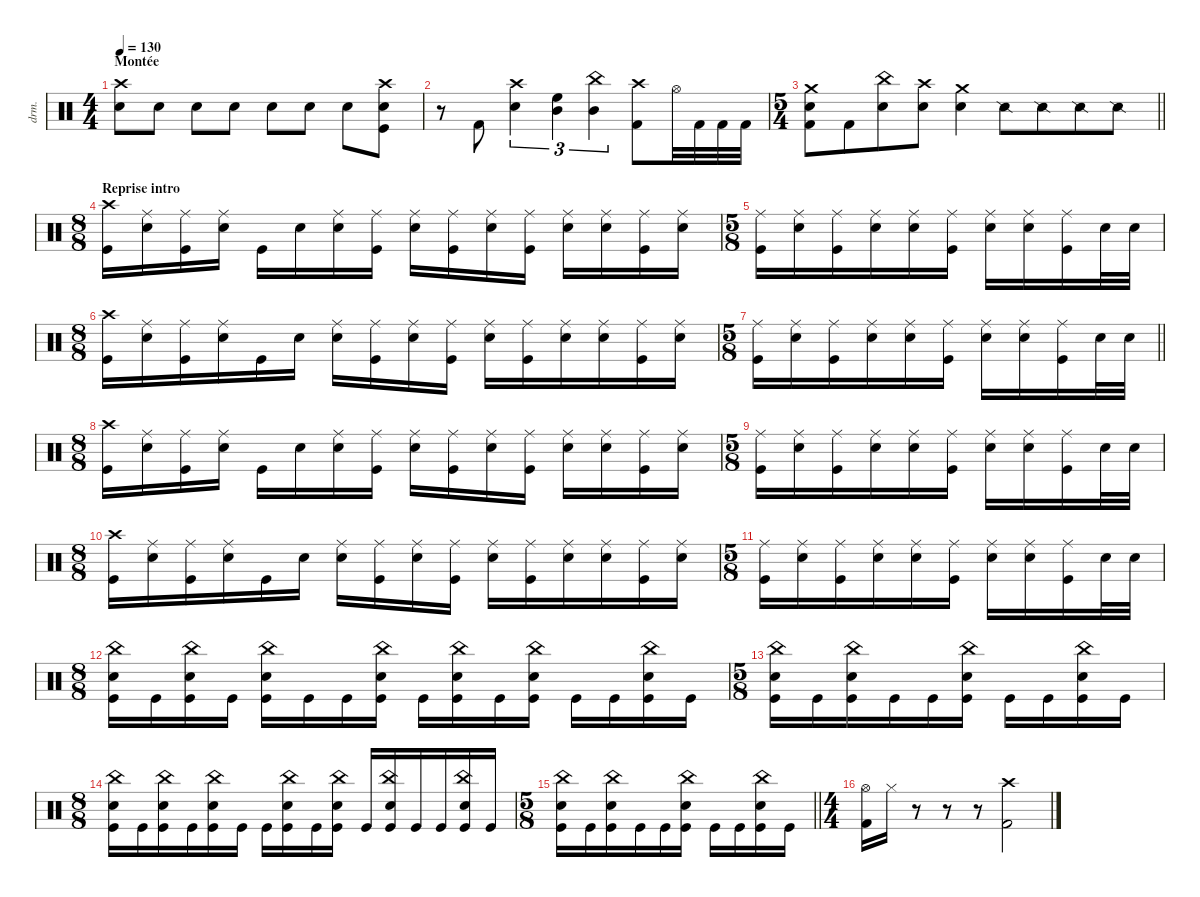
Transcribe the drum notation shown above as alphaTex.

\defaultSystemsLayout 4
\hideDynamics
\bracketExtendMode nobrackets
\otherSystemsTrackNameOrientation horizontal
\track ("Manouche" "drm.") {instrument percussion}
\staff {score}
\articulation defaults
\ts (4 4)
\section ("" "Montée")
\tempo 130
\clef neutral
\ks c
("Crash high (hit)" "Snare (hit) 2").8{dy mf beam Down} "Snare (hit) 2".8{dy mp beam Down} "Snare (hit) 2".8{beam Down} "Snare (hit) 2".8{beam Down} "Snare (hit) 2".8{dy mf beam Down} "Snare (hit) 2".8{beam Down} "Snare (hit) 2".8{dy f beam Down} ("Crash high (hit)" "Kick (hit)" "Snare (hit) 2").8{beam Down} |
r.8{beam Down} "Kick (hit) 2".8{dy ff beam Up} ("Snare (hit) 2" "Crash high (hit)").4{tu (3 2) beam Down} ("Mid Tom (hit)" "High Floor Tom (hit)").4{tu (3 2) beam Down} ("Mid Tom (hit)" "China (hit)").4{tu (3 2) beam Down} ("Crash high (hit)" "Kick (hit) 2").8{dy f beam Down} "Hi-Hat (open)".32{dy ff beam Down} "Kick (hit) 2".32{dy f beam Down} "Kick (hit) 2".32{beam Down} "Kick (hit) 2".32{beam Down} |
\ts (5 4)
\beaming (8 6 4)
\barLineRight lightlight
("Kick (hit) 2" "Snare (hit) 2" "Crash medium (hit)").8{dy ff beam Down} "Kick (hit) 2".8{dy f beam Down} ("Snare (hit) 2" "China (hit)").8{beam Down} ("Snare (hit) 2" "Crash high (hit)").8{beam Down} ("Snare (hit) 2" "Crash medium (hit)").4{beam Down} "Snare (side stick) 2".8{beam Down} "Snare (side stick) 2".8{beam Down} "Snare (side stick) 2".8{beam Down} "Snare (side stick) 2".8{beam Down} |
\ts (8 8)
\beaming (8 2 2 2 2)
\section ("" "Reprise intro")
("Crash high (hit)" "Kick (hit)").16{beam Down} ("Snare (hit) 2" "Ride (middle)").16{beam Down} ("Kick (hit)" "Ride (middle)").16{beam Down} ("Snare (hit) 2" "Ride (middle)").16{beam Down} "Kick (hit)".16{beam Down} "Snare (hit) 2".16{beam Down} ("Snare (hit) 2" "Ride (middle)").16{beam Down} ("Kick (hit)" "Ride (middle)").16{beam Down} ("Snare (hit) 2" "Ride (middle)").16{beam Down} ("Kick (hit)" "Ride (middle)").16{beam Down} ("Snare (hit) 2" "Ride (middle)").16{beam Down} ("Ride (middle)" "Kick (hit)").16{beam Down} ("Snare (hit) 2" "Ride (middle)").16{beam Down} ("Snare (hit) 2" "Ride (middle)").16{beam Down} ("Kick (hit)" "Ride (middle)").16{beam Down} ("Snare (hit) 2" "Ride (middle)").16{beam Down} |
\ts (5 8)
\beaming (8 3 2)
("Kick (hit)" "Ride (middle)").16{beam Down} ("Snare (hit) 2" "Ride (middle)").16{beam Down} ("Kick (hit)" "Ride (middle)").16{beam Down} ("Snare (hit) 2" "Ride (middle)").16{beam Down} ("Snare (hit) 2" "Ride (middle)").16{beam Down} ("Kick (hit)" "Ride (middle)").16{beam Down} ("Snare (hit) 2" "Ride (middle)").16{beam Down} ("Snare (hit) 2" "Ride (middle)").16{beam Down} ("Kick (hit)" "Ride (middle)").16{beam Down} "Snare (hit) 2".32{beam Down} "Snare (hit) 2".32{beam Down} |
\ts (8 8)
\beaming (8 3 2 3)
("Crash high (hit)" "Kick (hit)").16{beam Down} ("Snare (hit) 2" "Ride (middle)").16{beam Down} ("Kick (hit)" "Ride (middle)").16{beam Down} ("Snare (hit) 2" "Ride (middle)").16{beam Down} "Kick (hit)".16{beam Down} "Snare (hit) 2".16{beam Down} ("Snare (hit) 2" "Ride (middle)").16{beam Down} ("Kick (hit)" "Ride (middle)").16{beam Down} ("Snare (hit) 2" "Ride (middle)").16{beam Down} ("Kick (hit)" "Ride (middle)").16{beam Down} ("Snare (hit) 2" "Ride (middle)").16{beam Down} ("Ride (middle)" "Kick (hit)").16{beam Down} ("Snare (hit) 2" "Ride (middle)").16{beam Down} ("Snare (hit) 2" "Ride (middle)").16{beam Down} ("Kick (hit)" "Ride (middle)").16{beam Down} ("Snare (hit) 2" "Ride (middle)").16{beam Down} |
\ts (5 8)
\beaming (8 3 2)
\barLineRight lightlight
("Kick (hit)" "Ride (middle)").16{beam Down} ("Snare (hit) 2" "Ride (middle)").16{beam Down} ("Kick (hit)" "Ride (middle)").16{beam Down} ("Snare (hit) 2" "Ride (middle)").16{beam Down} ("Snare (hit) 2" "Ride (middle)").16{beam Down} ("Kick (hit)" "Ride (middle)").16{beam Down} ("Snare (hit) 2" "Ride (middle)").16{beam Down} ("Snare (hit) 2" "Ride (middle)").16{beam Down} ("Kick (hit)" "Ride (middle)").16{beam Down} "Snare (hit) 2".32{beam Down} "Snare (hit) 2".32{beam Down} |
\ts (8 8)
\beaming (8 2 2 2 2)
("Crash high (hit)" "Kick (hit)").16{beam Down} ("Snare (hit) 2" "Ride (middle)").16{beam Down} ("Kick (hit)" "Ride (middle)").16{beam Down} ("Snare (hit) 2" "Ride (middle)").16{beam Down} "Kick (hit)".16{beam Down} "Snare (hit) 2".16{beam Down} ("Snare (hit) 2" "Ride (middle)").16{beam Down} ("Kick (hit)" "Ride (middle)").16{beam Down} ("Snare (hit) 2" "Ride (middle)").16{beam Down} ("Kick (hit)" "Ride (middle)").16{beam Down} ("Snare (hit) 2" "Ride (middle)").16{beam Down} ("Ride (middle)" "Kick (hit)").16{beam Down} ("Snare (hit) 2" "Ride (middle)").16{beam Down} ("Snare (hit) 2" "Ride (middle)").16{beam Down} ("Kick (hit)" "Ride (middle)").16{beam Down} ("Snare (hit) 2" "Ride (middle)").16{beam Down} |
\ts (5 8)
\beaming (8 3 2)
("Kick (hit)" "Ride (middle)").16{beam Down} ("Snare (hit) 2" "Ride (middle)").16{beam Down} ("Kick (hit)" "Ride (middle)").16{beam Down} ("Snare (hit) 2" "Ride (middle)").16{beam Down} ("Snare (hit) 2" "Ride (middle)").16{beam Down} ("Kick (hit)" "Ride (middle)").16{beam Down} ("Snare (hit) 2" "Ride (middle)").16{beam Down} ("Snare (hit) 2" "Ride (middle)").16{beam Down} ("Kick (hit)" "Ride (middle)").16{beam Down} "Snare (hit) 2".32{beam Down} "Snare (hit) 2".32{beam Down} |
\ts (8 8)
\beaming (8 3 2 3)
("Crash high (hit)" "Kick (hit)").16{beam Down} ("Snare (hit) 2" "Ride (middle)").16{beam Down} ("Kick (hit)" "Ride (middle)").16{beam Down} ("Snare (hit) 2" "Ride (middle)").16{beam Down} "Kick (hit)".16{beam Down} "Snare (hit) 2".16{beam Down} ("Snare (hit) 2" "Ride (middle)").16{beam Down} ("Kick (hit)" "Ride (middle)").16{beam Down} ("Snare (hit) 2" "Ride (middle)").16{beam Down} ("Kick (hit)" "Ride (middle)").16{beam Down} ("Snare (hit) 2" "Ride (middle)").16{beam Down} ("Ride (middle)" "Kick (hit)").16{beam Down} ("Snare (hit) 2" "Ride (middle)").16{beam Down} ("Snare (hit) 2" "Ride (middle)").16{beam Down} ("Kick (hit)" "Ride (middle)").16{beam Down} ("Snare (hit) 2" "Ride (middle)").16{beam Down} |
\ts (5 8)
\beaming (8 3 2)
("Kick (hit)" "Ride (middle)").16{beam Down} ("Snare (hit) 2" "Ride (middle)").16{beam Down} ("Kick (hit)" "Ride (middle)").16{beam Down} ("Snare (hit) 2" "Ride (middle)").16{beam Down} ("Snare (hit) 2" "Ride (middle)").16{beam Down} ("Kick (hit)" "Ride (middle)").16{beam Down} ("Snare (hit) 2" "Ride (middle)").16{beam Down} ("Snare (hit) 2" "Ride (middle)").16{beam Down} ("Kick (hit)" "Ride (middle)").16{beam Down} "Snare (hit) 2".32{beam Down} "Snare (hit) 2".32{beam Down} |
\ts (8 8)
\beaming (8 2 2 2 2)
("Snare (hit) 2" "China (hit)" "Kick (hit)").16{beam Down} "Kick (hit)".16{beam Down} ("Kick (hit)" "Snare (hit) 2" "China (hit)").16{beam Down} "Kick (hit)".16{beam Down} ("Kick (hit)" "Snare (hit) 2" "China (hit)").16{beam Down} "Kick (hit)".16{beam Down} "Kick (hit)".16{beam Down} ("Kick (hit)" "Snare (hit) 2" "China (hit)").16{beam Down} "Kick (hit)".16{beam Down} ("Kick (hit)" "Snare (hit) 2" "China (hit)").16{beam Down} "Kick (hit)".16{beam Down} ("Kick (hit)" "Snare (hit) 2" "China (hit)").16{beam Down} "Kick (hit)".16{beam Down} "Kick (hit)".16{beam Down} ("Kick (hit)" "Snare (hit) 2" "China (hit)").16{beam Down} "Kick (hit)".16{beam Down} |
\ts (5 8)
\beaming (8 3 2)
("Kick (hit)" "Snare (hit) 2" "China (hit)").16{beam Down} "Kick (hit)".16{beam Down} ("Kick (hit)" "Snare (hit) 2" "China (hit)").16{beam Down} "Kick (hit)".16{beam Down} "Kick (hit)".16{beam Down} ("Kick (hit)" "Snare (hit) 2" "China (hit)").16{beam Down} "Kick (hit)".16{beam Down} "Kick (hit)".16{beam Down} ("Kick (hit)" "Snare (hit) 2" "China (hit)").16{beam Down} "Kick (hit)".16{beam Down} |
\ts (8 8)
\beaming (8 3 2 3)
("Snare (hit) 2" "China (hit)" "Kick (hit)").16{beam Down} "Kick (hit)".16{beam Down} ("Kick (hit)" "Snare (hit) 2" "China (hit)").16{beam Down} "Kick (hit)".16{beam Down} ("Kick (hit)" "Snare (hit) 2" "China (hit)").16{beam Down} "Kick (hit)".16{beam Down} "Kick (hit)".16{beam Down} ("Kick (hit)" "Snare (hit) 2" "China (hit)").16{beam Down} "Kick (hit)".16{beam Down} ("Kick (hit)" "Snare (hit) 2" "China (hit)").16{beam Down} "Kick (hit)".16{beam Up} ("Kick (hit)" "Snare (hit) 2" "China (hit)").16{beam Up} "Kick (hit)".16{beam Up} "Kick (hit)".16{beam Up} ("Kick (hit)" "Snare (hit) 2" "China (hit)").16{beam Up} "Kick (hit)".16{beam Up} |
\ts (5 8)
\beaming (8 3 2)
\barLineRight lightlight
("Kick (hit)" "Snare (hit) 2" "China (hit)").16{beam Down} "Kick (hit)".16{beam Down} ("Kick (hit)" "Snare (hit) 2" "China (hit)").16{beam Down} "Kick (hit)".16{beam Down} "Kick (hit)".16{beam Down} ("Kick (hit)" "Snare (hit) 2" "China (hit)").16{beam Down} "Kick (hit)".16{beam Down} "Kick (hit)".16{beam Down} ("Kick (hit)" "Snare (hit) 2" "China (hit)").16{beam Down} "Kick (hit)".16{beam Down} |
\ts (4 4)
\beaming (8 2 2 2 2)
("Kick (hit) 2" "Hi-Hat (open)").16{beam Down} "Hi-Hat (closed)".16{beam Down} r.8{beam Down} r.8{beam Down} r.8{beam Down} ("Kick (hit) 2" "Crash high (hit)").2{dy ff beam Down}
